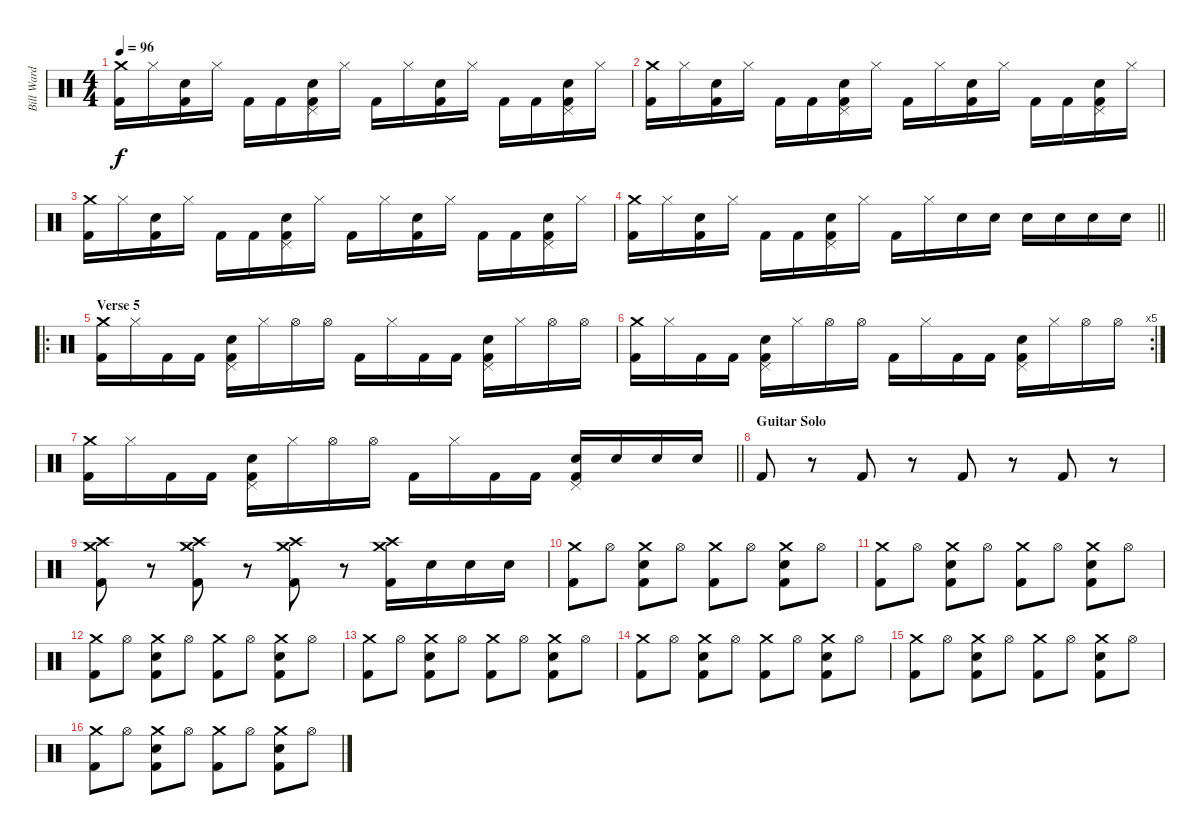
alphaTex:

\track ("Bill Ward" "Bill Ward") {instrument percussion}
\staff {score}
\articulation defaults
\ts (4 4)
\tempo 96
\clef neutral
\ks c
("Crash medium (hit)" "Kick (hit) 2").16{dy f} "Hi-Hat (closed)".16 ("Snare (hit) 2" "Kick (hit) 2").16 "Hi-Hat (closed)".16 "Kick (hit) 2".16 "Kick (hit) 2".16 ("Pedal Hi-Hat (hit)" "Snare (hit) 2" "Kick (hit) 2").16 "Hi-Hat (closed)".16 "Kick (hit) 2".16 "Hi-Hat (closed)".16 ("Snare (hit) 2" "Kick (hit) 2").16 "Hi-Hat (closed)".16 "Kick (hit) 2".16 "Kick (hit) 2".16 ("Pedal Hi-Hat (hit)" "Snare (hit) 2" "Kick (hit) 2").16 "Hi-Hat (closed)".16 |
("Crash medium (hit)" "Kick (hit) 2").16 "Hi-Hat (closed)".16 ("Snare (hit) 2" "Kick (hit) 2").16 "Hi-Hat (closed)".16 "Kick (hit) 2".16 "Kick (hit) 2".16 ("Pedal Hi-Hat (hit)" "Snare (hit) 2" "Kick (hit) 2").16 "Hi-Hat (closed)".16 "Kick (hit) 2".16 "Hi-Hat (closed)".16 ("Snare (hit) 2" "Kick (hit) 2").16 "Hi-Hat (closed)".16 "Kick (hit) 2".16 "Kick (hit) 2".16 ("Pedal Hi-Hat (hit)" "Snare (hit) 2" "Kick (hit) 2").16 "Hi-Hat (closed)".16 |
("Crash medium (hit)" "Kick (hit) 2").16 "Hi-Hat (closed)".16 ("Snare (hit) 2" "Kick (hit) 2").16 "Hi-Hat (closed)".16 "Kick (hit) 2".16 "Kick (hit) 2".16 ("Pedal Hi-Hat (hit)" "Snare (hit) 2" "Kick (hit) 2").16 "Hi-Hat (closed)".16 "Kick (hit) 2".16 "Hi-Hat (closed)".16 ("Snare (hit) 2" "Kick (hit) 2").16 "Hi-Hat (closed)".16 "Kick (hit) 2".16 "Kick (hit) 2".16 ("Pedal Hi-Hat (hit)" "Snare (hit) 2" "Kick (hit) 2").16 "Hi-Hat (closed)".16 |
\barLineRight lightlight
("Crash medium (hit)" "Kick (hit) 2").16 "Hi-Hat (closed)".16 ("Snare (hit) 2" "Kick (hit) 2").16 "Hi-Hat (closed)".16 "Kick (hit) 2".16 "Kick (hit) 2".16 ("Pedal Hi-Hat (hit)" "Snare (hit) 2" "Kick (hit) 2").16 "Hi-Hat (closed)".16 "Kick (hit) 2".16 "Hi-Hat (closed)".16 "Snare (hit) 2".16 "Snare (hit) 2".16 "Snare (hit) 2".16 "Snare (hit) 2".16 "Snare (hit) 2".16 "Snare (hit) 2".16 |
\ro
\section ("" "Verse 5")
("Crash medium (hit)" "Kick (hit) 2").16 "Hi-Hat (closed)".16 "Kick (hit) 2".16 "Kick (hit) 2".16 ("Pedal Hi-Hat (hit)" "Snare (hit) 2" "Kick (hit) 2").16 "Hi-Hat (closed)".16 "Hi-Hat (open)".16 "Hi-Hat (open)".16 "Kick (hit) 2".16 "Hi-Hat (closed)".16 "Kick (hit) 2".16 "Kick (hit) 2".16 ("Pedal Hi-Hat (hit)" "Snare (hit) 2" "Kick (hit) 2").16 "Hi-Hat (closed)".16 "Hi-Hat (open)".16 "Hi-Hat (open)".16 |
\rc 5
("Crash medium (hit)" "Kick (hit) 2").16 "Hi-Hat (closed)".16 "Kick (hit) 2".16 "Kick (hit) 2".16 ("Pedal Hi-Hat (hit)" "Snare (hit) 2" "Kick (hit) 2").16 "Hi-Hat (closed)".16 "Hi-Hat (open)".16 "Hi-Hat (open)".16 "Kick (hit) 2".16 "Hi-Hat (closed)".16 "Kick (hit) 2".16 "Kick (hit) 2".16 ("Pedal Hi-Hat (hit)" "Snare (hit) 2" "Kick (hit) 2").16 "Hi-Hat (closed)".16 "Hi-Hat (open)".16 "Hi-Hat (open)".16 |
\barLineRight lightlight
("Crash medium (hit)" "Kick (hit) 2").16 "Hi-Hat (closed)".16 "Kick (hit) 2".16 "Kick (hit) 2".16 ("Pedal Hi-Hat (hit)" "Snare (hit) 2" "Kick (hit) 2").16 "Hi-Hat (closed)".16 "Hi-Hat (open)".16 "Hi-Hat (open)".16 "Kick (hit) 2".16 "Hi-Hat (closed)".16 "Kick (hit) 2".16 "Kick (hit) 2".16 ("Pedal Hi-Hat (hit)" "Snare (hit) 2" "Kick (hit) 2").16 "Snare (hit) 2".16 "Snare (hit) 2".16 "Snare (hit) 2".16 |
\section ("" "Guitar Solo")
"Kick (hit) 2".8 r.8 "Kick (hit) 2".8 r.8 "Kick (hit) 2".8 r.8 "Kick (hit) 2".8 r.8 |
("Crash medium (hit)" "Crash high (hit)" "Kick (hit) 2").8 r.8 ("Crash medium (hit)" "Crash high (hit)" "Kick (hit) 2").8 r.8 ("Crash medium (hit)" "Crash high (hit)" "Kick (hit) 2").8 r.8 ("Crash medium (hit)" "Crash high (hit)" "Kick (hit) 2").16 "Snare (hit) 2".16 "Snare (hit) 2".16 "Snare (hit) 2".16 |
("Crash medium (hit)" "Kick (hit) 2").8 "Hi-Hat (open)".8 ("Crash medium (hit)" "Snare (hit) 2" "Kick (hit) 2").8 "Hi-Hat (open)".8 ("Crash medium (hit)" "Kick (hit) 2").8 "Hi-Hat (open)".8 ("Crash medium (hit)" "Snare (hit) 2" "Kick (hit) 2").8 "Hi-Hat (open)".8 |
("Crash medium (hit)" "Kick (hit) 2").8 "Hi-Hat (open)".8 ("Crash medium (hit)" "Snare (hit) 2" "Kick (hit) 2").8 "Hi-Hat (open)".8 ("Crash medium (hit)" "Kick (hit) 2").8 "Hi-Hat (open)".8 ("Crash medium (hit)" "Snare (hit) 2" "Kick (hit) 2").8 "Hi-Hat (open)".8 |
("Crash medium (hit)" "Kick (hit) 2").8 "Hi-Hat (open)".8 ("Crash medium (hit)" "Snare (hit) 2" "Kick (hit) 2").8 "Hi-Hat (open)".8 ("Crash medium (hit)" "Kick (hit) 2").8 "Hi-Hat (open)".8 ("Crash medium (hit)" "Snare (hit) 2" "Kick (hit) 2").8 "Hi-Hat (open)".8 |
("Crash medium (hit)" "Kick (hit) 2").8 "Hi-Hat (open)".8 ("Crash medium (hit)" "Snare (hit) 2" "Kick (hit) 2").8 "Hi-Hat (open)".8 ("Crash medium (hit)" "Kick (hit) 2").8 "Hi-Hat (open)".8 ("Crash medium (hit)" "Snare (hit) 2" "Kick (hit) 2").8 "Hi-Hat (open)".8 |
("Crash medium (hit)" "Kick (hit) 2").8 "Hi-Hat (open)".8 ("Crash medium (hit)" "Snare (hit) 2" "Kick (hit) 2").8 "Hi-Hat (open)".8 ("Crash medium (hit)" "Kick (hit) 2").8 "Hi-Hat (open)".8 ("Crash medium (hit)" "Snare (hit) 2" "Kick (hit) 2").8 "Hi-Hat (open)".8 |
("Crash medium (hit)" "Kick (hit) 2").8 "Hi-Hat (open)".8 ("Crash medium (hit)" "Snare (hit) 2" "Kick (hit) 2").8 "Hi-Hat (open)".8 ("Crash medium (hit)" "Kick (hit) 2").8 "Hi-Hat (open)".8 ("Crash medium (hit)" "Snare (hit) 2" "Kick (hit) 2").8 "Hi-Hat (open)".8 |
("Crash medium (hit)" "Kick (hit) 2").8 "Hi-Hat (open)".8 ("Crash medium (hit)" "Snare (hit) 2" "Kick (hit) 2").8 "Hi-Hat (open)".8 ("Crash medium (hit)" "Kick (hit) 2").8 "Hi-Hat (open)".8 ("Crash medium (hit)" "Snare (hit) 2" "Kick (hit) 2").8 "Hi-Hat (open)".8
